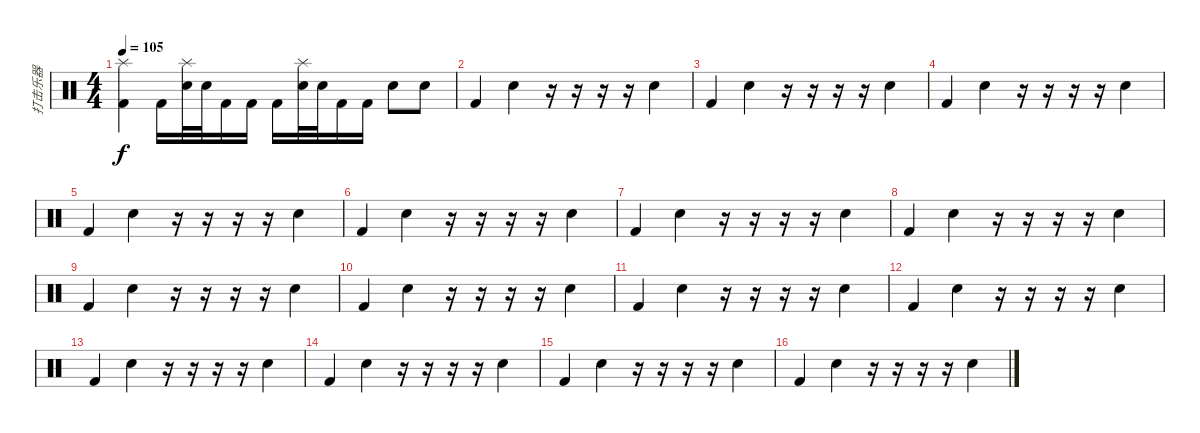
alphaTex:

\track ("打击乐器" "打击乐器") {instrument percussion}
\staff {score}
\articulation defaults
\ts (4 4)
\tempo 105
\clef neutral
\ks c
("Kick (hit) 2" "Splash (hit)").4{dy f} "Kick (hit) 2".16 ("Snare (hit) 2" "Splash (hit)").32 "Electric Snare (hit)".32 "Kick (hit) 2".16 "Kick (hit) 2".16 "Kick (hit) 2".16 ("Snare (hit) 2" "Splash (hit)").32 "Electric Snare (hit)".32 "Kick (hit) 2".16 "Kick (hit) 2".16 "Electric Snare (hit)".8 "Electric Snare (hit)".8 |
"Kick (hit) 2".4 "Electric Snare (hit)".4 r.16 r.16 r.16 r.16 "Electric Snare (hit)".4 |
"Kick (hit) 2".4 "Electric Snare (hit)".4 r.16 r.16 r.16 r.16 "Electric Snare (hit)".4 |
"Kick (hit) 2".4 "Electric Snare (hit)".4 r.16 r.16 r.16 r.16 "Electric Snare (hit)".4 |
"Kick (hit) 2".4 "Electric Snare (hit)".4 r.16 r.16 r.16 r.16 "Electric Snare (hit)".4 |
"Kick (hit) 2".4 "Electric Snare (hit)".4 r.16 r.16 r.16 r.16 "Electric Snare (hit)".4 |
"Kick (hit) 2".4 "Electric Snare (hit)".4 r.16 r.16 r.16 r.16 "Electric Snare (hit)".4 |
"Kick (hit) 2".4 "Electric Snare (hit)".4 r.16 r.16 r.16 r.16 "Electric Snare (hit)".4 |
"Kick (hit) 2".4 "Electric Snare (hit)".4 r.16 r.16 r.16 r.16 "Electric Snare (hit)".4 |
"Kick (hit) 2".4 "Electric Snare (hit)".4 r.16 r.16 r.16 r.16 "Electric Snare (hit)".4 |
"Kick (hit) 2".4 "Electric Snare (hit)".4 r.16 r.16 r.16 r.16 "Electric Snare (hit)".4 |
"Kick (hit) 2".4 "Electric Snare (hit)".4 r.16 r.16 r.16 r.16 "Electric Snare (hit)".4 |
"Kick (hit) 2".4 "Electric Snare (hit)".4 r.16 r.16 r.16 r.16 "Electric Snare (hit)".4 |
"Kick (hit) 2".4 "Electric Snare (hit)".4 r.16 r.16 r.16 r.16 "Electric Snare (hit)".4 |
"Kick (hit) 2".4 "Electric Snare (hit)".4 r.16 r.16 r.16 r.16 "Electric Snare (hit)".4 |
"Kick (hit) 2".4 "Electric Snare (hit)".4 r.16 r.16 r.16 r.16 "Electric Snare (hit)".4
